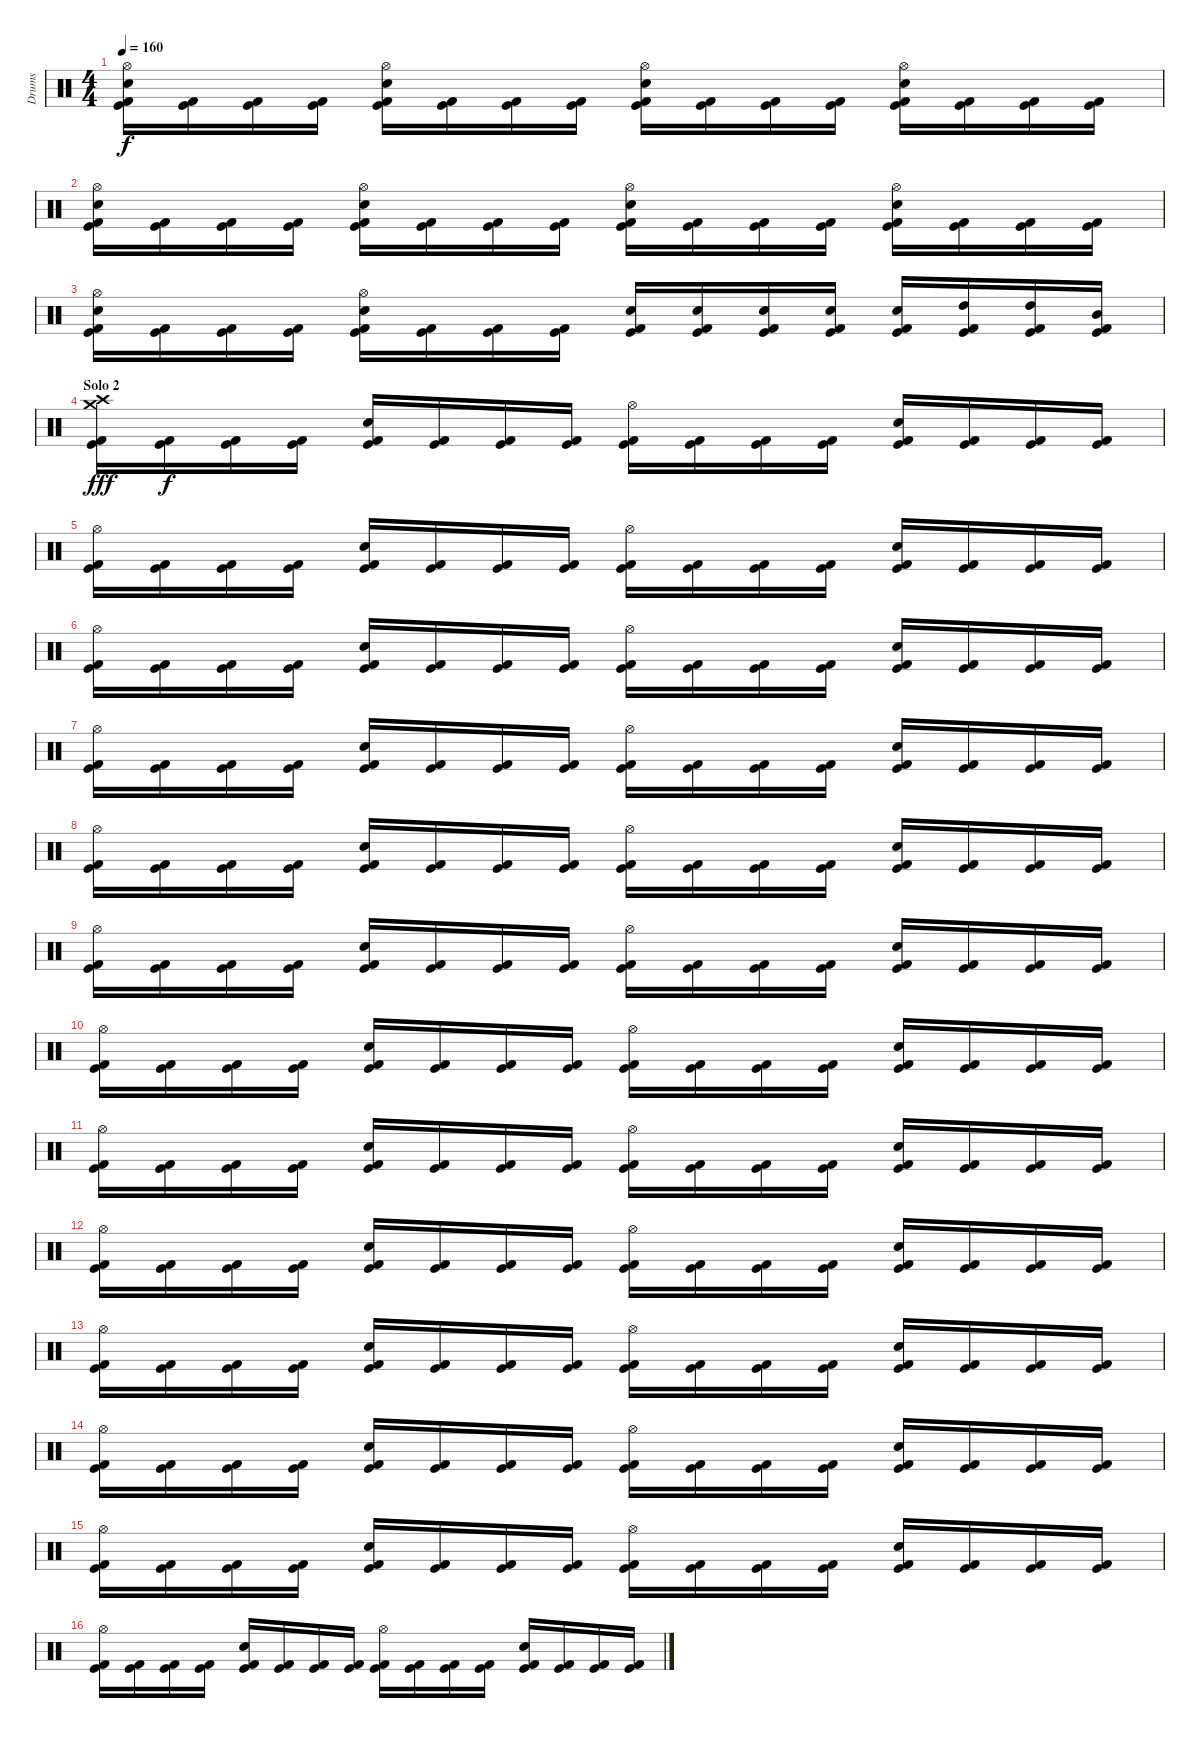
\track ("Drums" "Drums") {instrument percussion}
\staff {score}
\articulation defaults
\ts (4 4)
\tempo 160
\clef neutral
\ks c
("Hi-Hat (open)" "Snare (hit) 2" "Kick (hit)" "Kick (hit) 2").16{dy f} ("Kick (hit)" "Kick (hit) 2").16 ("Kick (hit)" "Kick (hit) 2").16 ("Kick (hit)" "Kick (hit) 2").16 ("Hi-Hat (open)" "Snare (hit) 2" "Kick (hit)" "Kick (hit) 2").16 ("Kick (hit)" "Kick (hit) 2").16 ("Kick (hit)" "Kick (hit) 2").16 ("Kick (hit)" "Kick (hit) 2").16 ("Hi-Hat (open)" "Snare (hit) 2" "Kick (hit)" "Kick (hit) 2").16 ("Kick (hit)" "Kick (hit) 2").16 ("Kick (hit)" "Kick (hit) 2").16 ("Kick (hit)" "Kick (hit) 2").16 ("Hi-Hat (open)" "Snare (hit) 2" "Kick (hit)" "Kick (hit) 2").16 ("Kick (hit)" "Kick (hit) 2").16 ("Kick (hit)" "Kick (hit) 2").16 ("Kick (hit)" "Kick (hit) 2").16 |
("Hi-Hat (open)" "Snare (hit) 2" "Kick (hit)" "Kick (hit) 2").16 ("Kick (hit)" "Kick (hit) 2").16 ("Kick (hit)" "Kick (hit) 2").16 ("Kick (hit)" "Kick (hit) 2").16 ("Hi-Hat (open)" "Snare (hit) 2" "Kick (hit)" "Kick (hit) 2").16 ("Kick (hit)" "Kick (hit) 2").16 ("Kick (hit)" "Kick (hit) 2").16 ("Kick (hit)" "Kick (hit) 2").16 ("Hi-Hat (open)" "Snare (hit) 2" "Kick (hit)" "Kick (hit) 2").16 ("Kick (hit)" "Kick (hit) 2").16 ("Kick (hit)" "Kick (hit) 2").16 ("Kick (hit)" "Kick (hit) 2").16 ("Hi-Hat (open)" "Snare (hit) 2" "Kick (hit)" "Kick (hit) 2").16 ("Kick (hit)" "Kick (hit) 2").16 ("Kick (hit)" "Kick (hit) 2").16 ("Kick (hit)" "Kick (hit) 2").16 |
("Hi-Hat (open)" "Snare (hit) 2" "Kick (hit)" "Kick (hit) 2").16 ("Kick (hit)" "Kick (hit) 2").16 ("Kick (hit)" "Kick (hit) 2").16 ("Kick (hit)" "Kick (hit) 2").16 ("Hi-Hat (open)" "Snare (hit) 2" "Kick (hit)" "Kick (hit) 2").16 ("Kick (hit)" "Kick (hit) 2").16 ("Kick (hit)" "Kick (hit) 2").16 ("Kick (hit)" "Kick (hit) 2").16 ("Snare (hit) 2" "Kick (hit)" "Kick (hit) 2").16 ("Snare (hit) 2" "Kick (hit)" "Kick (hit) 2").16 ("Snare (hit) 2" "Kick (hit)" "Kick (hit) 2").16 ("Snare (hit) 2" "Kick (hit)" "Kick (hit) 2").16 ("Snare (hit) 2" "Kick (hit)" "Kick (hit) 2").16 ("High Tom (hit)" "Kick (hit)" "Kick (hit) 2").16 ("High Tom (hit)" "Kick (hit)" "Kick (hit) 2").16 ("Mid Tom (hit)" "Kick (hit)" "Kick (hit) 2").16 |
\section ("" "Solo 2")
("Crash high (hit)" "Crash medium (hit)" "Kick (hit)" "Kick (hit) 2").16{dy fff} ("Kick (hit)" "Kick (hit) 2").16{dy f} ("Kick (hit)" "Kick (hit) 2").16 ("Kick (hit)" "Kick (hit) 2").16 ("Snare (hit) 2" "Kick (hit)" "Kick (hit) 2").16 ("Kick (hit)" "Kick (hit) 2").16 ("Kick (hit)" "Kick (hit) 2").16 ("Kick (hit)" "Kick (hit) 2").16 ("Hi-Hat (open)" "Kick (hit)" "Kick (hit) 2").16 ("Kick (hit)" "Kick (hit) 2").16 ("Kick (hit)" "Kick (hit) 2").16 ("Kick (hit)" "Kick (hit) 2").16 ("Snare (hit) 2" "Kick (hit)" "Kick (hit) 2").16 ("Kick (hit)" "Kick (hit) 2").16 ("Kick (hit)" "Kick (hit) 2").16 ("Kick (hit)" "Kick (hit) 2").16 |
("Hi-Hat (open)" "Kick (hit)" "Kick (hit) 2").16 ("Kick (hit)" "Kick (hit) 2").16 ("Kick (hit)" "Kick (hit) 2").16 ("Kick (hit)" "Kick (hit) 2").16 ("Snare (hit) 2" "Kick (hit)" "Kick (hit) 2").16 ("Kick (hit)" "Kick (hit) 2").16 ("Kick (hit)" "Kick (hit) 2").16 ("Kick (hit)" "Kick (hit) 2").16 ("Hi-Hat (open)" "Kick (hit)" "Kick (hit) 2").16 ("Kick (hit)" "Kick (hit) 2").16 ("Kick (hit)" "Kick (hit) 2").16 ("Kick (hit)" "Kick (hit) 2").16 ("Snare (hit) 2" "Kick (hit)" "Kick (hit) 2").16 ("Kick (hit)" "Kick (hit) 2").16 ("Kick (hit)" "Kick (hit) 2").16 ("Kick (hit)" "Kick (hit) 2").16 |
("Hi-Hat (open)" "Kick (hit)" "Kick (hit) 2").16 ("Kick (hit)" "Kick (hit) 2").16 ("Kick (hit)" "Kick (hit) 2").16 ("Kick (hit)" "Kick (hit) 2").16 ("Snare (hit) 2" "Kick (hit)" "Kick (hit) 2").16 ("Kick (hit)" "Kick (hit) 2").16 ("Kick (hit)" "Kick (hit) 2").16 ("Kick (hit)" "Kick (hit) 2").16 ("Hi-Hat (open)" "Kick (hit)" "Kick (hit) 2").16 ("Kick (hit)" "Kick (hit) 2").16 ("Kick (hit)" "Kick (hit) 2").16 ("Kick (hit)" "Kick (hit) 2").16 ("Snare (hit) 2" "Kick (hit)" "Kick (hit) 2").16 ("Kick (hit)" "Kick (hit) 2").16 ("Kick (hit)" "Kick (hit) 2").16 ("Kick (hit)" "Kick (hit) 2").16 |
("Hi-Hat (open)" "Kick (hit)" "Kick (hit) 2").16 ("Kick (hit)" "Kick (hit) 2").16 ("Kick (hit)" "Kick (hit) 2").16 ("Kick (hit)" "Kick (hit) 2").16 ("Snare (hit) 2" "Kick (hit)" "Kick (hit) 2").16 ("Kick (hit)" "Kick (hit) 2").16 ("Kick (hit)" "Kick (hit) 2").16 ("Kick (hit)" "Kick (hit) 2").16 ("Hi-Hat (open)" "Kick (hit)" "Kick (hit) 2").16 ("Kick (hit)" "Kick (hit) 2").16 ("Kick (hit)" "Kick (hit) 2").16 ("Kick (hit)" "Kick (hit) 2").16 ("Snare (hit) 2" "Kick (hit)" "Kick (hit) 2").16 ("Kick (hit)" "Kick (hit) 2").16 ("Kick (hit)" "Kick (hit) 2").16 ("Kick (hit)" "Kick (hit) 2").16 |
("Hi-Hat (open)" "Kick (hit)" "Kick (hit) 2").16 ("Kick (hit)" "Kick (hit) 2").16 ("Kick (hit)" "Kick (hit) 2").16 ("Kick (hit)" "Kick (hit) 2").16 ("Snare (hit) 2" "Kick (hit)" "Kick (hit) 2").16 ("Kick (hit)" "Kick (hit) 2").16 ("Kick (hit)" "Kick (hit) 2").16 ("Kick (hit)" "Kick (hit) 2").16 ("Hi-Hat (open)" "Kick (hit)" "Kick (hit) 2").16 ("Kick (hit)" "Kick (hit) 2").16 ("Kick (hit)" "Kick (hit) 2").16 ("Kick (hit)" "Kick (hit) 2").16 ("Snare (hit) 2" "Kick (hit)" "Kick (hit) 2").16 ("Kick (hit)" "Kick (hit) 2").16 ("Kick (hit)" "Kick (hit) 2").16 ("Kick (hit)" "Kick (hit) 2").16 |
("Hi-Hat (open)" "Kick (hit)" "Kick (hit) 2").16 ("Kick (hit)" "Kick (hit) 2").16 ("Kick (hit)" "Kick (hit) 2").16 ("Kick (hit)" "Kick (hit) 2").16 ("Snare (hit) 2" "Kick (hit)" "Kick (hit) 2").16 ("Kick (hit)" "Kick (hit) 2").16 ("Kick (hit)" "Kick (hit) 2").16 ("Kick (hit)" "Kick (hit) 2").16 ("Hi-Hat (open)" "Kick (hit)" "Kick (hit) 2").16 ("Kick (hit)" "Kick (hit) 2").16 ("Kick (hit)" "Kick (hit) 2").16 ("Kick (hit)" "Kick (hit) 2").16 ("Snare (hit) 2" "Kick (hit)" "Kick (hit) 2").16 ("Kick (hit)" "Kick (hit) 2").16 ("Kick (hit)" "Kick (hit) 2").16 ("Kick (hit)" "Kick (hit) 2").16 |
("Hi-Hat (open)" "Kick (hit)" "Kick (hit) 2").16 ("Kick (hit)" "Kick (hit) 2").16 ("Kick (hit)" "Kick (hit) 2").16 ("Kick (hit)" "Kick (hit) 2").16 ("Snare (hit) 2" "Kick (hit)" "Kick (hit) 2").16 ("Kick (hit)" "Kick (hit) 2").16 ("Kick (hit)" "Kick (hit) 2").16 ("Kick (hit)" "Kick (hit) 2").16 ("Hi-Hat (open)" "Kick (hit)" "Kick (hit) 2").16 ("Kick (hit)" "Kick (hit) 2").16 ("Kick (hit)" "Kick (hit) 2").16 ("Kick (hit)" "Kick (hit) 2").16 ("Snare (hit) 2" "Kick (hit)" "Kick (hit) 2").16 ("Kick (hit)" "Kick (hit) 2").16 ("Kick (hit)" "Kick (hit) 2").16 ("Kick (hit)" "Kick (hit) 2").16 |
("Hi-Hat (open)" "Kick (hit)" "Kick (hit) 2").16 ("Kick (hit)" "Kick (hit) 2").16 ("Kick (hit)" "Kick (hit) 2").16 ("Kick (hit)" "Kick (hit) 2").16 ("Snare (hit) 2" "Kick (hit)" "Kick (hit) 2").16 ("Kick (hit)" "Kick (hit) 2").16 ("Kick (hit)" "Kick (hit) 2").16 ("Kick (hit)" "Kick (hit) 2").16 ("Hi-Hat (open)" "Kick (hit)" "Kick (hit) 2").16 ("Kick (hit)" "Kick (hit) 2").16 ("Kick (hit)" "Kick (hit) 2").16 ("Kick (hit)" "Kick (hit) 2").16 ("Snare (hit) 2" "Kick (hit)" "Kick (hit) 2").16 ("Kick (hit)" "Kick (hit) 2").16 ("Kick (hit)" "Kick (hit) 2").16 ("Kick (hit)" "Kick (hit) 2").16 |
("Hi-Hat (open)" "Kick (hit)" "Kick (hit) 2").16 ("Kick (hit)" "Kick (hit) 2").16 ("Kick (hit)" "Kick (hit) 2").16 ("Kick (hit)" "Kick (hit) 2").16 ("Snare (hit) 2" "Kick (hit)" "Kick (hit) 2").16 ("Kick (hit)" "Kick (hit) 2").16 ("Kick (hit)" "Kick (hit) 2").16 ("Kick (hit)" "Kick (hit) 2").16 ("Hi-Hat (open)" "Kick (hit)" "Kick (hit) 2").16 ("Kick (hit)" "Kick (hit) 2").16 ("Kick (hit)" "Kick (hit) 2").16 ("Kick (hit)" "Kick (hit) 2").16 ("Snare (hit) 2" "Kick (hit)" "Kick (hit) 2").16 ("Kick (hit)" "Kick (hit) 2").16 ("Kick (hit)" "Kick (hit) 2").16 ("Kick (hit)" "Kick (hit) 2").16 |
("Hi-Hat (open)" "Kick (hit)" "Kick (hit) 2").16 ("Kick (hit)" "Kick (hit) 2").16 ("Kick (hit)" "Kick (hit) 2").16 ("Kick (hit)" "Kick (hit) 2").16 ("Snare (hit) 2" "Kick (hit)" "Kick (hit) 2").16 ("Kick (hit)" "Kick (hit) 2").16 ("Kick (hit)" "Kick (hit) 2").16 ("Kick (hit)" "Kick (hit) 2").16 ("Hi-Hat (open)" "Kick (hit)" "Kick (hit) 2").16 ("Kick (hit)" "Kick (hit) 2").16 ("Kick (hit)" "Kick (hit) 2").16 ("Kick (hit)" "Kick (hit) 2").16 ("Snare (hit) 2" "Kick (hit)" "Kick (hit) 2").16 ("Kick (hit)" "Kick (hit) 2").16 ("Kick (hit)" "Kick (hit) 2").16 ("Kick (hit)" "Kick (hit) 2").16 |
("Hi-Hat (open)" "Kick (hit)" "Kick (hit) 2").16 ("Kick (hit)" "Kick (hit) 2").16 ("Kick (hit)" "Kick (hit) 2").16 ("Kick (hit)" "Kick (hit) 2").16 ("Snare (hit) 2" "Kick (hit)" "Kick (hit) 2").16 ("Kick (hit)" "Kick (hit) 2").16 ("Kick (hit)" "Kick (hit) 2").16 ("Kick (hit)" "Kick (hit) 2").16 ("Hi-Hat (open)" "Kick (hit)" "Kick (hit) 2").16 ("Kick (hit)" "Kick (hit) 2").16 ("Kick (hit)" "Kick (hit) 2").16 ("Kick (hit)" "Kick (hit) 2").16 ("Snare (hit) 2" "Kick (hit)" "Kick (hit) 2").16 ("Kick (hit)" "Kick (hit) 2").16 ("Kick (hit)" "Kick (hit) 2").16 ("Kick (hit)" "Kick (hit) 2").16 |
("Hi-Hat (open)" "Kick (hit)" "Kick (hit) 2").16 ("Kick (hit)" "Kick (hit) 2").16 ("Kick (hit)" "Kick (hit) 2").16 ("Kick (hit)" "Kick (hit) 2").16 ("Snare (hit) 2" "Kick (hit)" "Kick (hit) 2").16 ("Kick (hit)" "Kick (hit) 2").16 ("Kick (hit)" "Kick (hit) 2").16 ("Kick (hit)" "Kick (hit) 2").16 ("Hi-Hat (open)" "Kick (hit)" "Kick (hit) 2").16 ("Kick (hit)" "Kick (hit) 2").16 ("Kick (hit)" "Kick (hit) 2").16 ("Kick (hit)" "Kick (hit) 2").16 ("Snare (hit) 2" "Kick (hit)" "Kick (hit) 2").16 ("Kick (hit)" "Kick (hit) 2").16 ("Kick (hit)" "Kick (hit) 2").16 ("Kick (hit)" "Kick (hit) 2").16 |
("Hi-Hat (open)" "Kick (hit)" "Kick (hit) 2").16 ("Kick (hit)" "Kick (hit) 2").16 ("Kick (hit)" "Kick (hit) 2").16 ("Kick (hit)" "Kick (hit) 2").16 ("Snare (hit) 2" "Kick (hit)" "Kick (hit) 2").16 ("Kick (hit)" "Kick (hit) 2").16 ("Kick (hit)" "Kick (hit) 2").16 ("Kick (hit)" "Kick (hit) 2").16 ("Hi-Hat (open)" "Kick (hit)" "Kick (hit) 2").16 ("Kick (hit)" "Kick (hit) 2").16 ("Kick (hit)" "Kick (hit) 2").16 ("Kick (hit)" "Kick (hit) 2").16 ("Snare (hit) 2" "Kick (hit)" "Kick (hit) 2").16 ("Kick (hit)" "Kick (hit) 2").16 ("Kick (hit)" "Kick (hit) 2").16 ("Kick (hit)" "Kick (hit) 2").16
